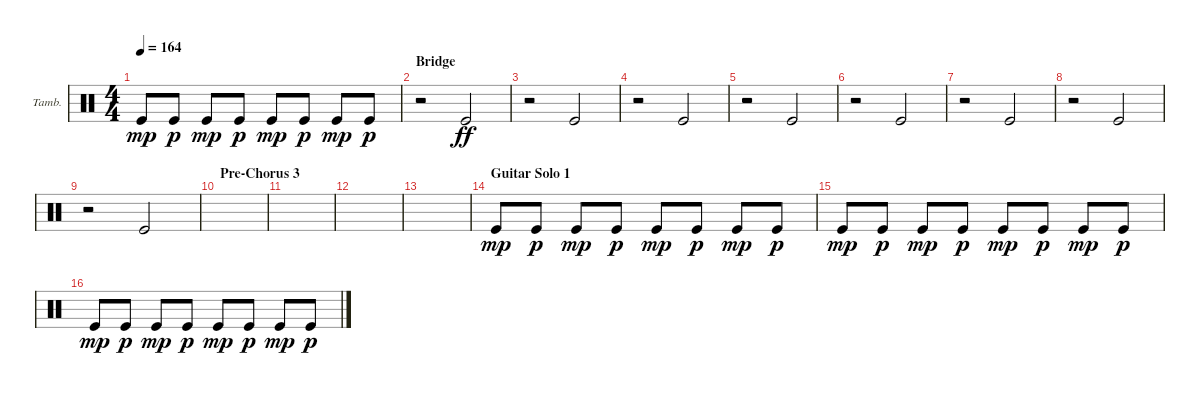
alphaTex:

\defaultSystemsLayout 4
\bracketExtendMode groupsimilarinstruments
\firstSystemTrackNameOrientation horizontal
\otherSystemsTrackNameOrientation horizontal
\track ("Tambourine" "Tamb.") {instrument percussion}
\staff {score}
\articulation defaults
\ts (4 4)
\tempo 164
\clef neutral
\ks c "Kick (hit)".8{dy mp} "Kick (hit)".8{dy p} "Kick (hit)".8{dy mp} "Kick (hit)".8{dy p} "Kick (hit)".8{dy mp} "Kick (hit)".8{dy p} "Kick (hit)".8{dy mp} "Kick (hit)".8{dy p}
|
\section ("" "Bridge")
r.2 "Kick (hit)".2{dy ff} |
r.2 "Kick (hit)".2 |
r.2 "Kick (hit)".2 |
r.2 "Kick (hit)".2 |
r.2 "Kick (hit)".2 |
r.2 "Kick (hit)".2 |
r.2 "Kick (hit)".2 |
r.2 "Kick (hit)".2 |
\section ("" "Pre-Chorus 3")
|
|
|
|
\section ("" "Guitar Solo 1")
"Kick (hit)".8{dy mp} "Kick (hit)".8{dy p} "Kick (hit)".8{dy mp} "Kick (hit)".8{dy p} "Kick (hit)".8{dy mp} "Kick (hit)".8{dy p} "Kick (hit)".8{dy mp} "Kick (hit)".8{dy p} |
"Kick (hit)".8{dy mp} "Kick (hit)".8{dy p} "Kick (hit)".8{dy mp} "Kick (hit)".8{dy p} "Kick (hit)".8{dy mp} "Kick (hit)".8{dy p} "Kick (hit)".8{dy mp} "Kick (hit)".8{dy p} |
"Kick (hit)".8{dy mp} "Kick (hit)".8{dy p} "Kick (hit)".8{dy mp} "Kick (hit)".8{dy p} "Kick (hit)".8{dy mp} "Kick (hit)".8{dy p} "Kick (hit)".8{dy mp} "Kick (hit)".8{dy p}
